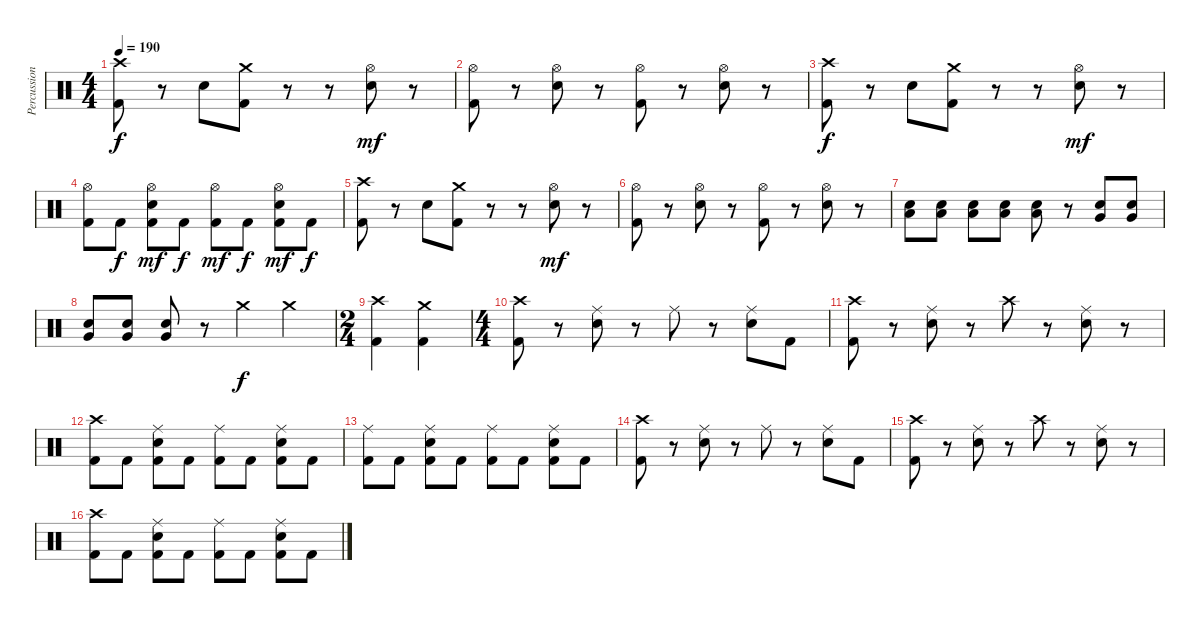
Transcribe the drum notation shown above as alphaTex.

\track ("Percussion" "Percussion") {instrument percussion}
\staff {score}
\articulation defaults
\ts (4 4)
\tempo 190
\clef neutral
\ks c
("Crash high (hit)" "Kick (hit) 2").8{dy f} r.8 "Snare (hit) 2".8 ("Crash medium (hit)" "Kick (hit) 2").8 r.8 r.8 ("Hi-Hat (open)" "Snare (hit) 2").8{dy mf} r.8 |
("Hi-Hat (open)" "Kick (hit) 2").8 r.8 ("Hi-Hat (open)" "Snare (hit) 2").8 r.8 ("Hi-Hat (open)" "Kick (hit) 2").8 r.8 ("Hi-Hat (open)" "Snare (hit) 2").8 r.8 |
("Crash high (hit)" "Kick (hit) 2").8{dy f} r.8 "Snare (hit) 2".8 ("Crash medium (hit)" "Kick (hit) 2").8 r.8 r.8 ("Hi-Hat (open)" "Snare (hit) 2").8{dy mf} r.8 |
("Hi-Hat (open)" "Kick (hit) 2").8 "Kick (hit) 2".8{dy f} ("Hi-Hat (open)" "Snare (hit) 2" "Kick (hit) 2").8{dy mf} "Kick (hit) 2".8{dy f} ("Hi-Hat (open)" "Kick (hit) 2").8{dy mf} "Kick (hit) 2".8{dy f} ("Hi-Hat (open)" "Snare (hit) 2" "Kick (hit) 2").8{dy mf} "Kick (hit) 2".8{dy f} |
("Crash high (hit)" "Kick (hit) 2").8 r.8 "Snare (hit) 2".8 ("Crash medium (hit)" "Kick (hit) 2").8 r.8 r.8 ("Hi-Hat (open)" "Snare (hit) 2").8{dy mf} r.8 |
("Hi-Hat (open)" "Kick (hit) 2").8 r.8 ("Hi-Hat (open)" "Snare (hit) 2").8 r.8 ("Hi-Hat (open)" "Kick (hit) 2").8 r.8 ("Hi-Hat (open)" "Snare (hit) 2").8 r.8 |
("Snare (hit) 2" "Low Tom (hit)").8 ("Snare (hit) 2" "Low Tom (hit)").8 ("Snare (hit) 2" "Low Tom (hit)").8 ("Snare (hit) 2" "Low Tom (hit)").8 ("Snare (hit) 2" "Low Tom (hit)").8 r.8 ("Snare (hit) 2" "Very Low Tom (hit)").8 ("Snare (hit) 2" "Very Low Tom (hit)").8 |
("Snare (hit) 2" "Very Low Tom (hit)").8 ("Snare (hit) 2" "Very Low Tom (hit)").8 ("Snare (hit) 2" "Very Low Tom (hit)").8 r.8 "Crash medium (hit)".4{dy f} "Crash medium (hit)".4 |
\ts (2 4)
("Crash high (hit)" "Kick (hit) 2").4 ("Crash medium (hit)" "Kick (hit) 2").4 |
\ts (4 4)
("Crash high (hit)" "Kick (hit) 2").8 r.8 ("Ride (middle)" "Snare (hit) 2").8 r.8 "Ride (middle)".8 r.8 ("Ride (middle)" "Snare (hit) 2").8 "Kick (hit) 2".8 |
("Crash high (hit)" "Kick (hit) 2").8 r.8 ("Ride (middle)" "Snare (hit) 2").8 r.8 "Crash high (hit)".8 r.8 ("Ride (middle)" "Snare (hit) 2").8 r.8 |
("Crash high (hit)" "Kick (hit) 2").8 "Kick (hit) 2".8 ("Ride (middle)" "Snare (hit) 2" "Kick (hit) 2").8 "Kick (hit) 2".8 ("Ride (middle)" "Kick (hit) 2").8 "Kick (hit) 2".8 ("Ride (middle)" "Snare (hit) 2" "Kick (hit) 2").8 "Kick (hit) 2".8 |
("Ride (middle)" "Kick (hit) 2").8 "Kick (hit) 2".8 ("Ride (middle)" "Snare (hit) 2" "Kick (hit) 2").8 "Kick (hit) 2".8 ("Ride (middle)" "Kick (hit) 2").8 "Kick (hit) 2".8 ("Ride (middle)" "Snare (hit) 2" "Kick (hit) 2").8 "Kick (hit) 2".8 |
("Crash high (hit)" "Kick (hit) 2").8 r.8 ("Ride (middle)" "Snare (hit) 2").8 r.8 "Ride (middle)".8 r.8 ("Ride (middle)" "Snare (hit) 2").8 "Kick (hit) 2".8 |
("Crash high (hit)" "Kick (hit) 2").8 r.8 ("Ride (middle)" "Snare (hit) 2").8 r.8 "Crash high (hit)".8 r.8 ("Ride (middle)" "Snare (hit) 2").8 r.8 |
("Crash high (hit)" "Kick (hit) 2").8 "Kick (hit) 2".8 ("Ride (middle)" "Snare (hit) 2" "Kick (hit) 2").8 "Kick (hit) 2".8 ("Ride (middle)" "Kick (hit) 2").8 "Kick (hit) 2".8 ("Ride (middle)" "Snare (hit) 2" "Kick (hit) 2").8 "Kick (hit) 2".8
